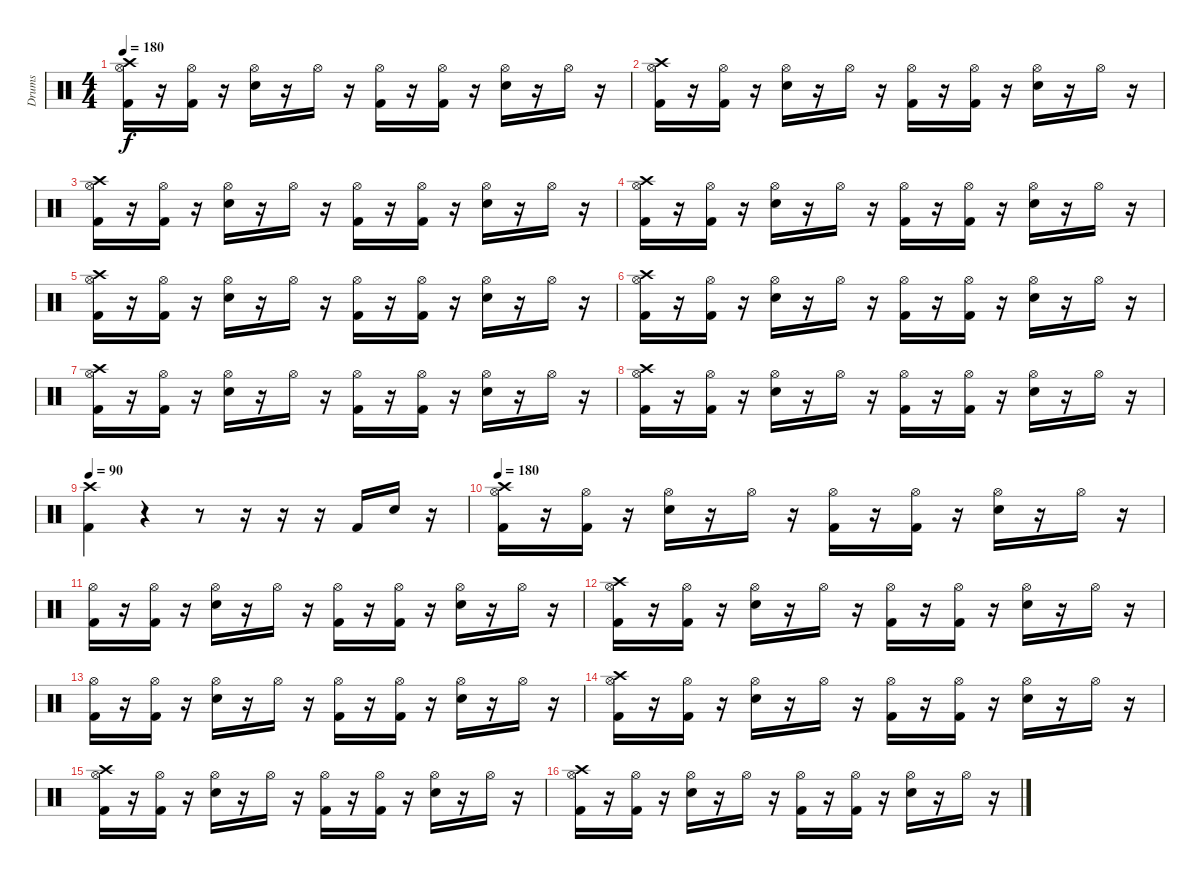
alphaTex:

\track ("Drums" "Drums") {instrument percussion}
\staff {score}
\articulation defaults
\ts (4 4)
\tempo 180
\clef neutral
\ks c
("Hi-Hat (open)" "Kick (hit) 2" "Crash high (hit)").16{dy f} r.16 ("Hi-Hat (open)" "Kick (hit) 2").16 r.16 ("Hi-Hat (open)" "Snare (hit) 2").16 r.16 "Hi-Hat (open)".16 r.16 ("Hi-Hat (open)" "Kick (hit) 2").16 r.16 ("Hi-Hat (open)" "Kick (hit) 2").16 r.16 ("Hi-Hat (open)" "Snare (hit) 2").16 r.16 "Hi-Hat (open)".16 r.16 |
("Hi-Hat (open)" "Kick (hit) 2" "Crash high (hit)").16 r.16 ("Hi-Hat (open)" "Kick (hit) 2").16 r.16 ("Hi-Hat (open)" "Snare (hit) 2").16 r.16 "Hi-Hat (open)".16 r.16 ("Hi-Hat (open)" "Kick (hit) 2").16 r.16 ("Hi-Hat (open)" "Kick (hit) 2").16 r.16 ("Hi-Hat (open)" "Snare (hit) 2").16 r.16 "Hi-Hat (open)".16 r.16 |
("Hi-Hat (open)" "Kick (hit) 2" "Crash high (hit)").16 r.16 ("Hi-Hat (open)" "Kick (hit) 2").16 r.16 ("Hi-Hat (open)" "Snare (hit) 2").16 r.16 "Hi-Hat (open)".16 r.16 ("Hi-Hat (open)" "Kick (hit) 2").16 r.16 ("Hi-Hat (open)" "Kick (hit) 2").16 r.16 ("Hi-Hat (open)" "Snare (hit) 2").16 r.16 "Hi-Hat (open)".16 r.16 |
("Hi-Hat (open)" "Kick (hit) 2" "Crash high (hit)").16 r.16 ("Hi-Hat (open)" "Kick (hit) 2").16 r.16 ("Hi-Hat (open)" "Snare (hit) 2").16 r.16 "Hi-Hat (open)".16 r.16 ("Hi-Hat (open)" "Kick (hit) 2").16 r.16 ("Hi-Hat (open)" "Kick (hit) 2").16 r.16 ("Hi-Hat (open)" "Snare (hit) 2").16 r.16 "Hi-Hat (open)".16 r.16 |
("Hi-Hat (open)" "Kick (hit) 2" "Crash high (hit)").16 r.16 ("Hi-Hat (open)" "Kick (hit) 2").16 r.16 ("Hi-Hat (open)" "Snare (hit) 2").16 r.16 "Hi-Hat (open)".16 r.16 ("Hi-Hat (open)" "Kick (hit) 2").16 r.16 ("Hi-Hat (open)" "Kick (hit) 2").16 r.16 ("Hi-Hat (open)" "Snare (hit) 2").16 r.16 "Hi-Hat (open)".16 r.16 |
("Hi-Hat (open)" "Kick (hit) 2" "Crash high (hit)").16 r.16 ("Hi-Hat (open)" "Kick (hit) 2").16 r.16 ("Hi-Hat (open)" "Snare (hit) 2").16 r.16 "Hi-Hat (open)".16 r.16 ("Hi-Hat (open)" "Kick (hit) 2").16 r.16 ("Hi-Hat (open)" "Kick (hit) 2").16 r.16 ("Hi-Hat (open)" "Snare (hit) 2").16 r.16 "Hi-Hat (open)".16 r.16 |
("Hi-Hat (open)" "Kick (hit) 2" "Crash high (hit)").16 r.16 ("Hi-Hat (open)" "Kick (hit) 2").16 r.16 ("Hi-Hat (open)" "Snare (hit) 2").16 r.16 "Hi-Hat (open)".16 r.16 ("Hi-Hat (open)" "Kick (hit) 2").16 r.16 ("Hi-Hat (open)" "Kick (hit) 2").16 r.16 ("Hi-Hat (open)" "Snare (hit) 2").16 r.16 "Hi-Hat (open)".16 r.16 |
("Hi-Hat (open)" "Kick (hit) 2" "Crash high (hit)").16 r.16 ("Hi-Hat (open)" "Kick (hit) 2").16 r.16 ("Hi-Hat (open)" "Snare (hit) 2").16 r.16 "Hi-Hat (open)".16 r.16 ("Hi-Hat (open)" "Kick (hit) 2").16 r.16 ("Hi-Hat (open)" "Kick (hit) 2").16 r.16 ("Hi-Hat (open)" "Snare (hit) 2").16 r.16 "Hi-Hat (open)".16 r.16 |
\tempo 90
("Kick (hit) 2" "Crash high (hit)").4 r.4 r.8 r.16 r.16 r.16 "Kick (hit) 2".16 "Snare (hit) 2".16 r.16 |
\tempo 180
("Hi-Hat (open)" "Kick (hit) 2" "Crash high (hit)").16 r.16 ("Hi-Hat (open)" "Kick (hit) 2").16 r.16 ("Hi-Hat (open)" "Snare (hit) 2").16 r.16 "Hi-Hat (open)".16 r.16 ("Hi-Hat (open)" "Kick (hit) 2").16 r.16 ("Hi-Hat (open)" "Kick (hit) 2").16 r.16 ("Hi-Hat (open)" "Snare (hit) 2").16 r.16 "Hi-Hat (open)".16 r.16 |
("Hi-Hat (open)" "Kick (hit) 2").16 r.16 ("Hi-Hat (open)" "Kick (hit) 2").16 r.16 ("Hi-Hat (open)" "Snare (hit) 2").16 r.16 "Hi-Hat (open)".16 r.16 ("Hi-Hat (open)" "Kick (hit) 2").16 r.16 ("Hi-Hat (open)" "Kick (hit) 2").16 r.16 ("Hi-Hat (open)" "Snare (hit) 2").16 r.16 "Hi-Hat (open)".16 r.16 |
("Hi-Hat (open)" "Kick (hit) 2" "Crash high (hit)").16 r.16 ("Hi-Hat (open)" "Kick (hit) 2").16 r.16 ("Hi-Hat (open)" "Snare (hit) 2").16 r.16 "Hi-Hat (open)".16 r.16 ("Hi-Hat (open)" "Kick (hit) 2").16 r.16 ("Hi-Hat (open)" "Kick (hit) 2").16 r.16 ("Hi-Hat (open)" "Snare (hit) 2").16 r.16 "Hi-Hat (open)".16 r.16 |
("Hi-Hat (open)" "Kick (hit) 2").16 r.16 ("Hi-Hat (open)" "Kick (hit) 2").16 r.16 ("Hi-Hat (open)" "Snare (hit) 2").16 r.16 "Hi-Hat (open)".16 r.16 ("Hi-Hat (open)" "Kick (hit) 2").16 r.16 ("Hi-Hat (open)" "Kick (hit) 2").16 r.16 ("Hi-Hat (open)" "Snare (hit) 2").16 r.16 "Hi-Hat (open)".16 r.16 |
("Hi-Hat (open)" "Kick (hit) 2" "Crash high (hit)").16 r.16 ("Hi-Hat (open)" "Kick (hit) 2").16 r.16 ("Hi-Hat (open)" "Snare (hit) 2").16 r.16 "Hi-Hat (open)".16 r.16 ("Hi-Hat (open)" "Kick (hit) 2").16 r.16 ("Hi-Hat (open)" "Kick (hit) 2").16 r.16 ("Hi-Hat (open)" "Snare (hit) 2").16 r.16 "Hi-Hat (open)".16 r.16 |
("Hi-Hat (open)" "Kick (hit) 2" "Crash high (hit)").16 r.16 ("Hi-Hat (open)" "Kick (hit) 2").16 r.16 ("Hi-Hat (open)" "Snare (hit) 2").16 r.16 "Hi-Hat (open)".16 r.16 ("Hi-Hat (open)" "Kick (hit) 2").16 r.16 ("Hi-Hat (open)" "Kick (hit) 2").16 r.16 ("Hi-Hat (open)" "Snare (hit) 2").16 r.16 "Hi-Hat (open)".16 r.16 |
("Hi-Hat (open)" "Kick (hit) 2" "Crash high (hit)").16 r.16 ("Hi-Hat (open)" "Kick (hit) 2").16 r.16 ("Hi-Hat (open)" "Snare (hit) 2").16 r.16 "Hi-Hat (open)".16 r.16 ("Hi-Hat (open)" "Kick (hit) 2").16 r.16 ("Hi-Hat (open)" "Kick (hit) 2").16 r.16 ("Hi-Hat (open)" "Snare (hit) 2").16 r.16 "Hi-Hat (open)".16 r.16
